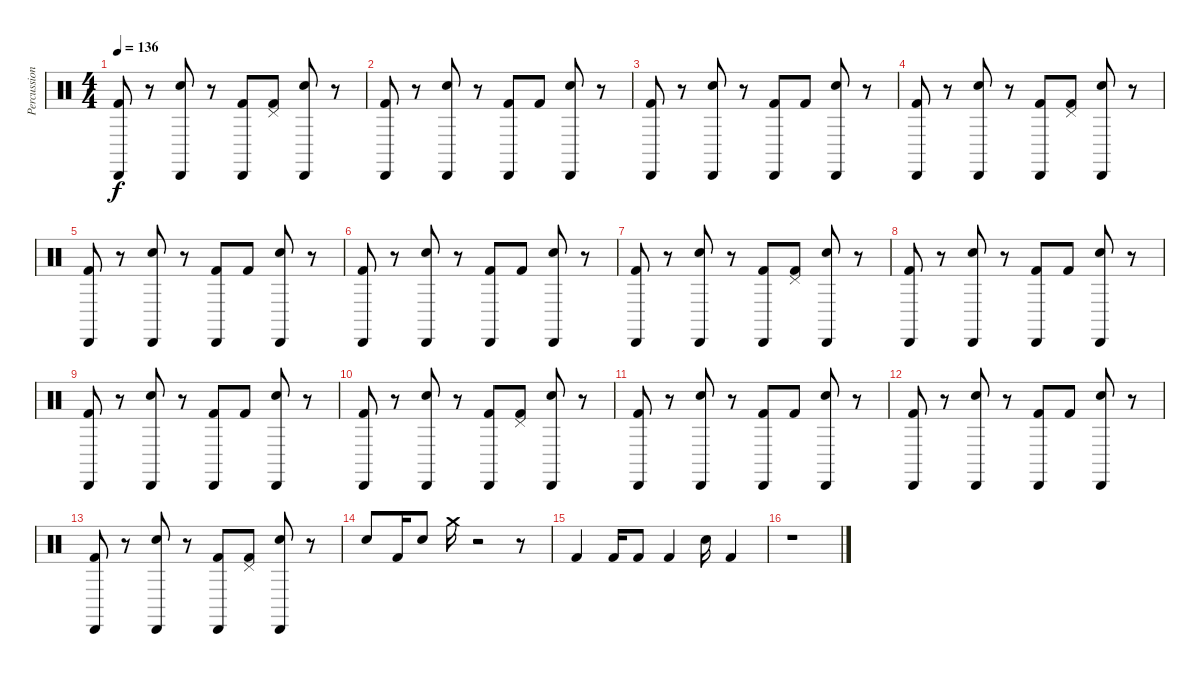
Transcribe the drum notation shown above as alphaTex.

\track ("Percussion 2" "Percussion") {instrument percussion}
\staff {score}
\articulation defaults
\ts (4 4)
\tempo 136
\clef neutral
\ks c
("Kick (hit) 2" "Cabasa (hit)").8{dy f} r.8 ("Snare (hit) 2" "Cabasa (hit)").8 r.8 ("Kick (hit) 2" "Cabasa (hit)").8 ("Pedal Hi-Hat (hit)" "Kick (hit) 2").8 ("Snare (hit) 2" "Cabasa (hit)").8 r.8 |
("Kick (hit) 2" "Cabasa (hit)").8 r.8 ("Snare (hit) 2" "Cabasa (hit)").8 r.8 ("Kick (hit) 2" "Cabasa (hit)").8 "Kick (hit) 2".8 ("Snare (hit) 2" "Cabasa (hit)").8 r.8 |
("Kick (hit) 2" "Cabasa (hit)").8 r.8 ("Snare (hit) 2" "Cabasa (hit)").8 r.8 ("Kick (hit) 2" "Cabasa (hit)").8 "Kick (hit) 2".8 ("Snare (hit) 2" "Cabasa (hit)").8 r.8 |
("Kick (hit) 2" "Cabasa (hit)").8 r.8 ("Snare (hit) 2" "Cabasa (hit)").8 r.8 ("Kick (hit) 2" "Cabasa (hit)").8 ("Pedal Hi-Hat (hit)" "Kick (hit) 2").8 ("Snare (hit) 2" "Cabasa (hit)").8 r.8 |
("Kick (hit) 2" "Cabasa (hit)").8 r.8 ("Snare (hit) 2" "Cabasa (hit)").8 r.8 ("Kick (hit) 2" "Cabasa (hit)").8 "Kick (hit) 2".8 ("Snare (hit) 2" "Cabasa (hit)").8 r.8 |
("Kick (hit) 2" "Cabasa (hit)").8 r.8 ("Snare (hit) 2" "Cabasa (hit)").8 r.8 ("Kick (hit) 2" "Cabasa (hit)").8 "Kick (hit) 2".8 ("Snare (hit) 2" "Cabasa (hit)").8 r.8 |
("Kick (hit) 2" "Cabasa (hit)").8 r.8 ("Snare (hit) 2" "Cabasa (hit)").8 r.8 ("Kick (hit) 2" "Cabasa (hit)").8 ("Pedal Hi-Hat (hit)" "Kick (hit) 2").8 ("Snare (hit) 2" "Cabasa (hit)").8 r.8 |
("Kick (hit) 2" "Cabasa (hit)").8 r.8 ("Snare (hit) 2" "Cabasa (hit)").8 r.8 ("Kick (hit) 2" "Cabasa (hit)").8 "Kick (hit) 2".8 ("Snare (hit) 2" "Cabasa (hit)").8 r.8 |
("Kick (hit) 2" "Cabasa (hit)").8 r.8 ("Snare (hit) 2" "Cabasa (hit)").8 r.8 ("Kick (hit) 2" "Cabasa (hit)").8 "Kick (hit) 2".8 ("Snare (hit) 2" "Cabasa (hit)").8 r.8 |
("Kick (hit) 2" "Cabasa (hit)").8 r.8 ("Snare (hit) 2" "Cabasa (hit)").8 r.8 ("Kick (hit) 2" "Cabasa (hit)").8 ("Pedal Hi-Hat (hit)" "Kick (hit) 2").8 ("Snare (hit) 2" "Cabasa (hit)").8 r.8 |
("Kick (hit) 2" "Cabasa (hit)").8 r.8 ("Snare (hit) 2" "Cabasa (hit)").8 r.8 ("Kick (hit) 2" "Cabasa (hit)").8 "Kick (hit) 2".8 ("Snare (hit) 2" "Cabasa (hit)").8 r.8 |
("Kick (hit) 2" "Cabasa (hit)").8 r.8 ("Snare (hit) 2" "Cabasa (hit)").8 r.8 ("Kick (hit) 2" "Cabasa (hit)").8 "Kick (hit) 2".8 ("Snare (hit) 2" "Cabasa (hit)").8 r.8 |
("Kick (hit) 2" "Cabasa (hit)").8 r.8 ("Snare (hit) 2" "Cabasa (hit)").8 r.8 ("Kick (hit) 2" "Cabasa (hit)").8 ("Pedal Hi-Hat (hit)" "Kick (hit) 2").8 ("Snare (hit) 2" "Cabasa (hit)").8 r.8 |
"Snare (hit) 2".8 "Kick (hit) 2".16 "Snare (hit) 2".8 "Crash medium (hit)".16 r.2 r.8 |
"Kick (hit) 2".4 "Kick (hit) 2".16 "Kick (hit) 2".8 "Kick (hit) 2".4 "Snare (hit) 2".16 "Kick (hit) 2".4 |
r.1
